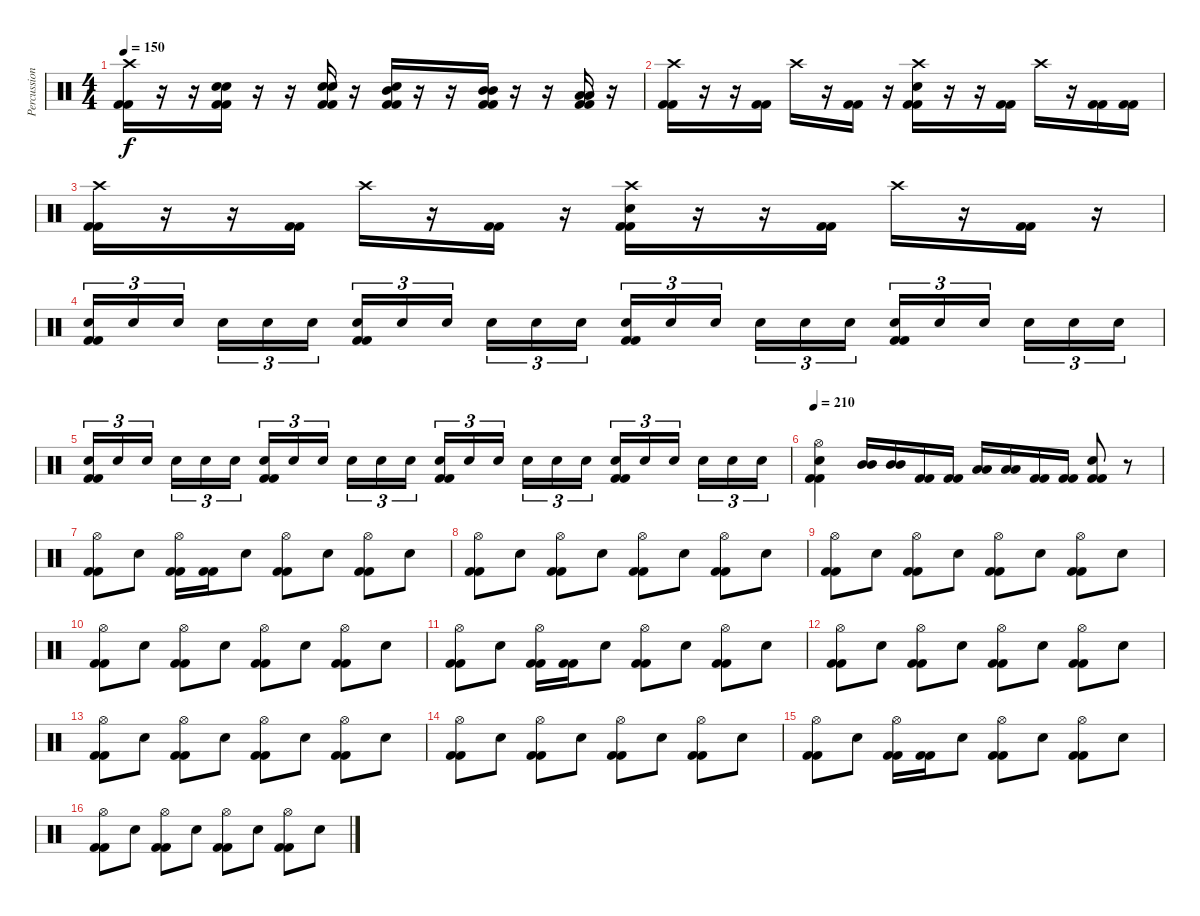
\track ("Percussion" "Percussion") {instrument percussion}
\staff {score}
\articulation defaults
\ts (4 4)
\tempo 150
\clef neutral
\ks c
("Crash high (hit)" "Kick (hit) 2" "Kick (hit) 2").16{dy f} r.16 r.16 ("Electric Snare (hit)" "Electric Snare (hit)" "Kick (hit) 2" "Kick (hit) 2").16 r.16 r.16 ("Electric Snare (hit)" "Electric Snare (hit)" "Kick (hit) 2" "Kick (hit) 2").16 r.16 ("Mid Tom (hit)" "Electric Snare (hit)" "Kick (hit) 2" "Kick (hit) 2").16 r.16 r.16 ("Mid Tom (hit)" "Mid Tom (hit)" "Kick (hit) 2" "Kick (hit) 2").16 r.16 r.16 ("Low Tom (hit)" "Low Tom (hit)" "Kick (hit) 2" "Kick (hit) 2").16 r.16 |
("Crash high (hit)" "Kick (hit) 2" "Kick (hit) 2").16 r.16 r.16 ("Kick (hit) 2" "Kick (hit) 2").16 "Crash high (hit)".16 r.16 ("Kick (hit) 2" "Kick (hit) 2").16 r.16 ("Crash high (hit)" "Electric Snare (hit)" "Kick (hit) 2" "Kick (hit) 2").16 r.16 r.16 ("Kick (hit) 2" "Kick (hit) 2").16 "Crash high (hit)".16 r.16 ("Kick (hit) 2" "Kick (hit) 2").16 ("Kick (hit) 2" "Kick (hit) 2").16 |
("Crash high (hit)" "Kick (hit) 2" "Kick (hit) 2").16 r.16 r.16 ("Kick (hit) 2" "Kick (hit) 2").16 "Crash high (hit)".16 r.16 ("Kick (hit) 2" "Kick (hit) 2").16 r.16 ("Crash high (hit)" "Electric Snare (hit)" "Kick (hit) 2" "Kick (hit) 2").16 r.16 r.16 ("Kick (hit) 2" "Kick (hit) 2").16 "Crash high (hit)".16 r.16 ("Kick (hit) 2" "Kick (hit) 2").16 r.16 |
("Electric Snare (hit)" "Kick (hit) 2" "Kick (hit) 2").16{tu (3 2)} "Electric Snare (hit)".16{tu (3 2)} "Electric Snare (hit)".16{tu (3 2) beam splitsecondary} "Electric Snare (hit)".16{tu (3 2)} "Electric Snare (hit)".16{tu (3 2)} "Electric Snare (hit)".16{tu (3 2)} ("Electric Snare (hit)" "Kick (hit) 2" "Kick (hit) 2").16{tu (3 2)} "Electric Snare (hit)".16{tu (3 2)} "Electric Snare (hit)".16{tu (3 2) beam splitsecondary} "Electric Snare (hit)".16{tu (3 2)} "Electric Snare (hit)".16{tu (3 2)} "Electric Snare (hit)".16{tu (3 2)} ("Electric Snare (hit)" "Kick (hit) 2" "Kick (hit) 2").16{tu (3 2)} "Electric Snare (hit)".16{tu (3 2)} "Electric Snare (hit)".16{tu (3 2) beam splitsecondary} "Electric Snare (hit)".16{tu (3 2)} "Electric Snare (hit)".16{tu (3 2)} "Electric Snare (hit)".16{tu (3 2)} ("Electric Snare (hit)" "Kick (hit) 2" "Kick (hit) 2").16{tu (3 2)} "Electric Snare (hit)".16{tu (3 2)} "Electric Snare (hit)".16{tu (3 2) beam splitsecondary} "Electric Snare (hit)".16{tu (3 2)} "Electric Snare (hit)".16{tu (3 2)} "Electric Snare (hit)".16{tu (3 2)} |
("Electric Snare (hit)" "Kick (hit) 2" "Kick (hit) 2").16{tu (3 2)} "Electric Snare (hit)".16{tu (3 2)} "Electric Snare (hit)".16{tu (3 2) beam splitsecondary} "Electric Snare (hit)".16{tu (3 2)} "Electric Snare (hit)".16{tu (3 2)} "Electric Snare (hit)".16{tu (3 2)} ("Electric Snare (hit)" "Kick (hit) 2" "Kick (hit) 2").16{tu (3 2)} "Electric Snare (hit)".16{tu (3 2)} "Electric Snare (hit)".16{tu (3 2) beam splitsecondary} "Electric Snare (hit)".16{tu (3 2)} "Electric Snare (hit)".16{tu (3 2)} "Electric Snare (hit)".16{tu (3 2)} ("Electric Snare (hit)" "Kick (hit) 2" "Kick (hit) 2").16{tu (3 2)} "Electric Snare (hit)".16{tu (3 2)} "Electric Snare (hit)".16{tu (3 2) beam splitsecondary} "Electric Snare (hit)".16{tu (3 2)} "Electric Snare (hit)".16{tu (3 2)} "Electric Snare (hit)".16{tu (3 2)} ("Electric Snare (hit)" "Kick (hit) 2" "Kick (hit) 2").16{tu (3 2)} "Electric Snare (hit)".16{tu (3 2)} "Electric Snare (hit)".16{tu (3 2) beam splitsecondary} "Electric Snare (hit)".16{tu (3 2)} "Electric Snare (hit)".16{tu (3 2)} "Electric Snare (hit)".16{tu (3 2)} |
\tempo 210
("Hi-Hat (open)" "Electric Snare (hit)" "Kick (hit) 2" "Kick (hit) 2").4 ("Mid Tom (hit)" "Mid Tom (hit)").16 ("Mid Tom (hit)" "Mid Tom (hit)").16 ("Kick (hit) 2" "Kick (hit) 2").16 ("Kick (hit) 2" "Kick (hit) 2").16 ("Low Tom (hit)" "Low Tom (hit)").16 ("Low Tom (hit)" "Low Tom (hit)").16 ("Kick (hit) 2" "Kick (hit) 2").16 ("Kick (hit) 2" "Kick (hit) 2").16 ("Electric Snare (hit)" "Kick (hit) 2" "Kick (hit) 2").8 r.8 |
("Hi-Hat (open)" "Kick (hit) 2" "Kick (hit) 2").8 "Electric Snare (hit)".8 ("Hi-Hat (open)" "Kick (hit) 2" "Kick (hit) 2").16 ("Kick (hit) 2" "Kick (hit) 2").16 "Electric Snare (hit)".8 ("Hi-Hat (open)" "Kick (hit) 2" "Kick (hit) 2").8 "Electric Snare (hit)".8 ("Hi-Hat (open)" "Kick (hit) 2" "Kick (hit) 2").8 "Electric Snare (hit)".8 |
("Hi-Hat (open)" "Kick (hit) 2" "Kick (hit) 2").8 "Electric Snare (hit)".8 ("Hi-Hat (open)" "Kick (hit) 2" "Kick (hit) 2").8 "Electric Snare (hit)".8 ("Hi-Hat (open)" "Kick (hit) 2" "Kick (hit) 2").8 "Electric Snare (hit)".8 ("Hi-Hat (open)" "Kick (hit) 2" "Kick (hit) 2").8 "Electric Snare (hit)".8 |
("Hi-Hat (open)" "Kick (hit) 2" "Kick (hit) 2").8 "Electric Snare (hit)".8 ("Hi-Hat (open)" "Kick (hit) 2" "Kick (hit) 2").8 "Electric Snare (hit)".8 ("Hi-Hat (open)" "Kick (hit) 2" "Kick (hit) 2").8 "Electric Snare (hit)".8 ("Hi-Hat (open)" "Kick (hit) 2" "Kick (hit) 2").8 "Electric Snare (hit)".8 |
("Hi-Hat (open)" "Kick (hit) 2" "Kick (hit) 2").8 "Electric Snare (hit)".8 ("Hi-Hat (open)" "Kick (hit) 2" "Kick (hit) 2").8 "Electric Snare (hit)".8 ("Hi-Hat (open)" "Kick (hit) 2" "Kick (hit) 2").8 "Electric Snare (hit)".8 ("Hi-Hat (open)" "Kick (hit) 2" "Kick (hit) 2").8 "Electric Snare (hit)".8 |
("Hi-Hat (open)" "Kick (hit) 2" "Kick (hit) 2").8 "Electric Snare (hit)".8 ("Hi-Hat (open)" "Kick (hit) 2" "Kick (hit) 2").16 ("Kick (hit) 2" "Kick (hit) 2").16 "Electric Snare (hit)".8 ("Hi-Hat (open)" "Kick (hit) 2" "Kick (hit) 2").8 "Electric Snare (hit)".8 ("Hi-Hat (open)" "Kick (hit) 2" "Kick (hit) 2").8 "Electric Snare (hit)".8 |
("Hi-Hat (open)" "Kick (hit) 2" "Kick (hit) 2").8 "Electric Snare (hit)".8 ("Hi-Hat (open)" "Kick (hit) 2" "Kick (hit) 2").8 "Electric Snare (hit)".8 ("Hi-Hat (open)" "Kick (hit) 2" "Kick (hit) 2").8 "Electric Snare (hit)".8 ("Hi-Hat (open)" "Kick (hit) 2" "Kick (hit) 2").8 "Electric Snare (hit)".8 |
("Hi-Hat (open)" "Kick (hit) 2" "Kick (hit) 2").8 "Electric Snare (hit)".8 ("Hi-Hat (open)" "Kick (hit) 2" "Kick (hit) 2").8 "Electric Snare (hit)".8 ("Hi-Hat (open)" "Kick (hit) 2" "Kick (hit) 2").8 "Electric Snare (hit)".8 ("Hi-Hat (open)" "Kick (hit) 2" "Kick (hit) 2").8 "Electric Snare (hit)".8 |
("Hi-Hat (open)" "Kick (hit) 2" "Kick (hit) 2").8 "Electric Snare (hit)".8 ("Hi-Hat (open)" "Kick (hit) 2" "Kick (hit) 2").8 "Electric Snare (hit)".8 ("Hi-Hat (open)" "Kick (hit) 2" "Kick (hit) 2").8 "Electric Snare (hit)".8 ("Hi-Hat (open)" "Kick (hit) 2" "Kick (hit) 2").8 "Electric Snare (hit)".8 |
("Hi-Hat (open)" "Kick (hit) 2" "Kick (hit) 2").8 "Electric Snare (hit)".8 ("Hi-Hat (open)" "Kick (hit) 2" "Kick (hit) 2").16 ("Kick (hit) 2" "Kick (hit) 2").16 "Electric Snare (hit)".8 ("Hi-Hat (open)" "Kick (hit) 2" "Kick (hit) 2").8 "Electric Snare (hit)".8 ("Hi-Hat (open)" "Kick (hit) 2" "Kick (hit) 2").8 "Electric Snare (hit)".8 |
("Hi-Hat (open)" "Kick (hit) 2" "Kick (hit) 2").8 "Electric Snare (hit)".8 ("Hi-Hat (open)" "Kick (hit) 2" "Kick (hit) 2").8 "Electric Snare (hit)".8 ("Hi-Hat (open)" "Kick (hit) 2" "Kick (hit) 2").8 "Electric Snare (hit)".8 ("Hi-Hat (open)" "Kick (hit) 2" "Kick (hit) 2").8 "Electric Snare (hit)".8
